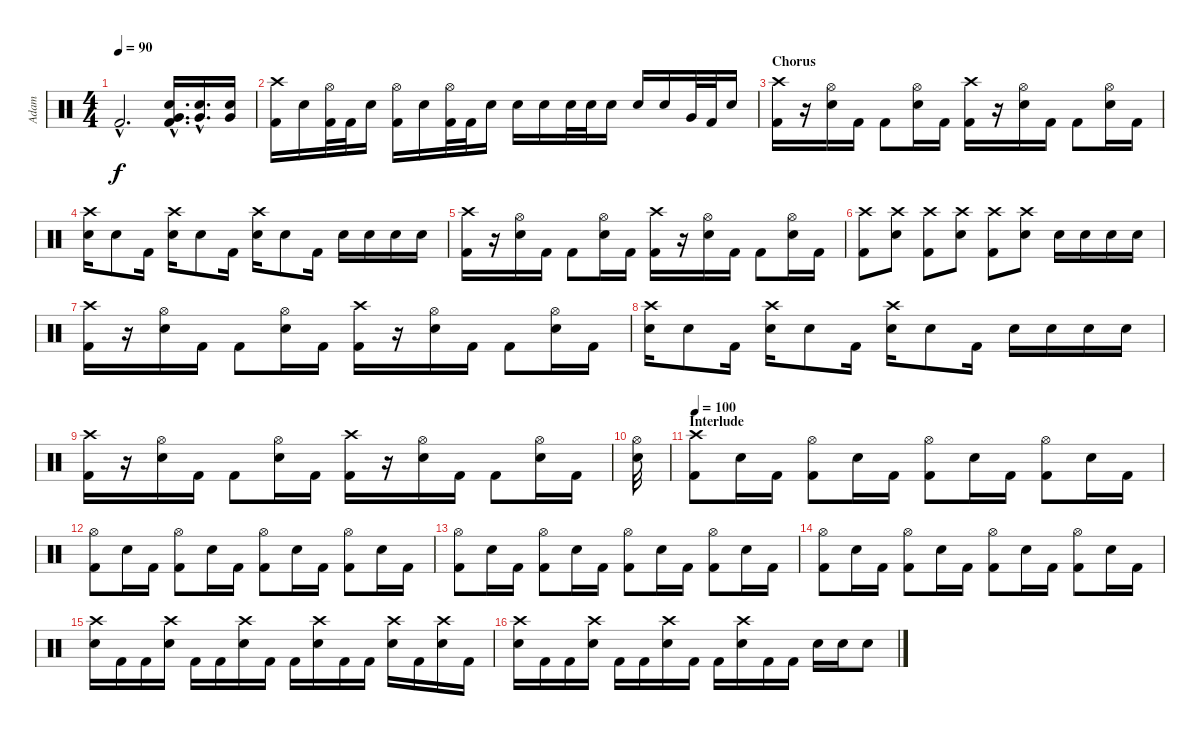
\track ("Adam" "Adam") {instrument percussion}
\staff {score}
\articulation defaults
\ts (4 4)
\tempo 90
\clef neutral
\ks c "Kick (hit) 2"{hac}.2{d dy f}
("Very Low Tom (hit)"{hac} "Electric Snare (hit)"{hac} "Kick (hit) 2"{hac}).16{d} ("Very Low Tom (hit)"{hac} "Electric Snare (hit)"{hac}).16{d} ("Very Low Tom (hit)" "Electric Snare (hit)").16 |
("Crash high (hit)" "Kick (hit) 2").16 "Electric Snare (hit)".16 ("Hi-Hat (open)" "Kick (hit) 2").32 "Kick (hit) 2".32 "Electric Snare (hit)".16 ("Hi-Hat (open)" "Kick (hit) 2").16 "Electric Snare (hit)".16 ("Hi-Hat (open)" "Kick (hit) 2").32 "Kick (hit) 2".32 "Electric Snare (hit)".16 "Electric Snare (hit)".16 "Electric Snare (hit)".16 "Electric Snare (hit)".32 "Electric Snare (hit)".32 "Electric Snare (hit)".16 "Electric Snare (hit)".16 "Electric Snare (hit)".16 "Very Low Tom (hit)".32 "Kick (hit) 2".32 "Electric Snare (hit)".16 |
\section ("" "Chorus")
("Crash high (hit)" "Kick (hit) 2").16 r.16 ("Hi-Hat (open)" "Electric Snare (hit)").16 "Kick (hit) 2".16 "Kick (hit) 2".8 ("Hi-Hat (open)" "Electric Snare (hit)").16 "Kick (hit) 2".16 ("Crash high (hit)" "Kick (hit) 2").16 r.16 ("Hi-Hat (open)" "Electric Snare (hit)").16 "Kick (hit) 2".16 "Kick (hit) 2".8 ("Hi-Hat (open)" "Electric Snare (hit)").16 "Kick (hit) 2".16 |
("Crash high (hit)" "Electric Snare (hit)").16 "Electric Snare (hit)".8 "Kick (hit) 2".16 ("Crash high (hit)" "Electric Snare (hit)").16 "Electric Snare (hit)".8 "Kick (hit) 2".16 ("Crash high (hit)" "Electric Snare (hit)").16 "Electric Snare (hit)".8 "Kick (hit) 2".16 "Electric Snare (hit)".16 "Electric Snare (hit)".16 "Electric Snare (hit)".16 "Electric Snare (hit)".16 |
("Crash high (hit)" "Kick (hit) 2").16 r.16 ("Hi-Hat (open)" "Electric Snare (hit)").16 "Kick (hit) 2".16 "Kick (hit) 2".8 ("Hi-Hat (open)" "Electric Snare (hit)").16 "Kick (hit) 2".16 ("Crash high (hit)" "Kick (hit) 2").16 r.16 ("Hi-Hat (open)" "Electric Snare (hit)").16 "Kick (hit) 2".16 "Kick (hit) 2".8 ("Hi-Hat (open)" "Electric Snare (hit)").16 "Kick (hit) 2".16 |
("Crash high (hit)" "Kick (hit) 2").8 ("Crash high (hit)" "Electric Snare (hit)").8 ("Crash high (hit)" "Kick (hit) 2").8 ("Crash high (hit)" "Electric Snare (hit)").8 ("Crash high (hit)" "Kick (hit) 2").8 ("Crash high (hit)" "Electric Snare (hit)").8 "Electric Snare (hit)".16 "Electric Snare (hit)".16 "Electric Snare (hit)".16 "Electric Snare (hit)".16 |
("Crash high (hit)" "Kick (hit) 2").16 r.16 ("Hi-Hat (open)" "Electric Snare (hit)").16 "Kick (hit) 2".16 "Kick (hit) 2".8 ("Hi-Hat (open)" "Electric Snare (hit)").16 "Kick (hit) 2".16 ("Crash high (hit)" "Kick (hit) 2").16 r.16 ("Hi-Hat (open)" "Electric Snare (hit)").16 "Kick (hit) 2".16 "Kick (hit) 2".8 ("Hi-Hat (open)" "Electric Snare (hit)").16 "Kick (hit) 2".16 |
("Crash high (hit)" "Electric Snare (hit)").16 "Electric Snare (hit)".8 "Kick (hit) 2".16 ("Crash high (hit)" "Electric Snare (hit)").16 "Electric Snare (hit)".8 "Kick (hit) 2".16 ("Crash high (hit)" "Electric Snare (hit)").16 "Electric Snare (hit)".8 "Kick (hit) 2".16 "Electric Snare (hit)".16 "Electric Snare (hit)".16 "Electric Snare (hit)".16 "Electric Snare (hit)".16 |
("Crash high (hit)" "Kick (hit) 2").16 r.16 ("Hi-Hat (open)" "Electric Snare (hit)").16 "Kick (hit) 2".16 "Kick (hit) 2".8 ("Hi-Hat (open)" "Electric Snare (hit)").16 "Kick (hit) 2".16 ("Crash high (hit)" "Kick (hit) 2").16 r.16 ("Hi-Hat (open)" "Electric Snare (hit)").16 "Kick (hit) 2".16 "Kick (hit) 2".8 ("Hi-Hat (open)" "Electric Snare (hit)").16 "Kick (hit) 2".16 |
("Hi-Hat (open)" "Electric Snare (hit)").32 |
\section ("" "Interlude")
\tempo 100
("Crash high (hit)" "Kick (hit) 2").8 "Electric Snare (hit)".16 "Kick (hit) 2".16 ("Hi-Hat (open)" "Kick (hit) 2").8 "Electric Snare (hit)".16 "Kick (hit) 2".16 ("Hi-Hat (open)" "Kick (hit) 2").8 "Electric Snare (hit)".16 "Kick (hit) 2".16 ("Hi-Hat (open)" "Kick (hit) 2").8 "Electric Snare (hit)".16 "Kick (hit) 2".16 |
("Hi-Hat (open)" "Kick (hit) 2").8 "Electric Snare (hit)".16 "Kick (hit) 2".16 ("Hi-Hat (open)" "Kick (hit) 2").8 "Electric Snare (hit)".16 "Kick (hit) 2".16 ("Hi-Hat (open)" "Kick (hit) 2").8 "Electric Snare (hit)".16 "Kick (hit) 2".16 ("Hi-Hat (open)" "Kick (hit) 2").8 "Electric Snare (hit)".16 "Kick (hit) 2".16 |
("Hi-Hat (open)" "Kick (hit) 2").8 "Electric Snare (hit)".16 "Kick (hit) 2".16 ("Hi-Hat (open)" "Kick (hit) 2").8 "Electric Snare (hit)".16 "Kick (hit) 2".16 ("Hi-Hat (open)" "Kick (hit) 2").8 "Electric Snare (hit)".16 "Kick (hit) 2".16 ("Hi-Hat (open)" "Kick (hit) 2").8 "Electric Snare (hit)".16 "Kick (hit) 2".16 |
("Hi-Hat (open)" "Kick (hit) 2").8 "Electric Snare (hit)".16 "Kick (hit) 2".16 ("Hi-Hat (open)" "Kick (hit) 2").8 "Electric Snare (hit)".16 "Kick (hit) 2".16 ("Hi-Hat (open)" "Kick (hit) 2").8 "Electric Snare (hit)".16 "Kick (hit) 2".16 ("Hi-Hat (open)" "Kick (hit) 2").8 "Electric Snare (hit)".16 "Kick (hit) 2".16 |
("Crash high (hit)" "Electric Snare (hit)").16 "Kick (hit) 2".16 "Kick (hit) 2".16 ("Crash high (hit)" "Electric Snare (hit)").16 "Kick (hit) 2".16 "Kick (hit) 2".16 ("Crash high (hit)" "Electric Snare (hit)").16 "Kick (hit) 2".16 "Kick (hit) 2".16 ("Crash high (hit)" "Electric Snare (hit)").16 "Kick (hit) 2".16 "Kick (hit) 2".16 ("Crash high (hit)" "Electric Snare (hit)").16 "Kick (hit) 2".16 ("Crash high (hit)" "Electric Snare (hit)").16 "Kick (hit) 2".16 |
("Crash high (hit)" "Electric Snare (hit)").16 "Kick (hit) 2".16 "Kick (hit) 2".16 ("Crash high (hit)" "Electric Snare (hit)").16 "Kick (hit) 2".16 "Kick (hit) 2".16 ("Crash high (hit)" "Electric Snare (hit)").16 "Kick (hit) 2".16 "Kick (hit) 2".16 ("Crash high (hit)" "Electric Snare (hit)").16 "Kick (hit) 2".16 "Kick (hit) 2".16 "Electric Snare (hit)".16 "Electric Snare (hit)".16 "Electric Snare (hit)".8
